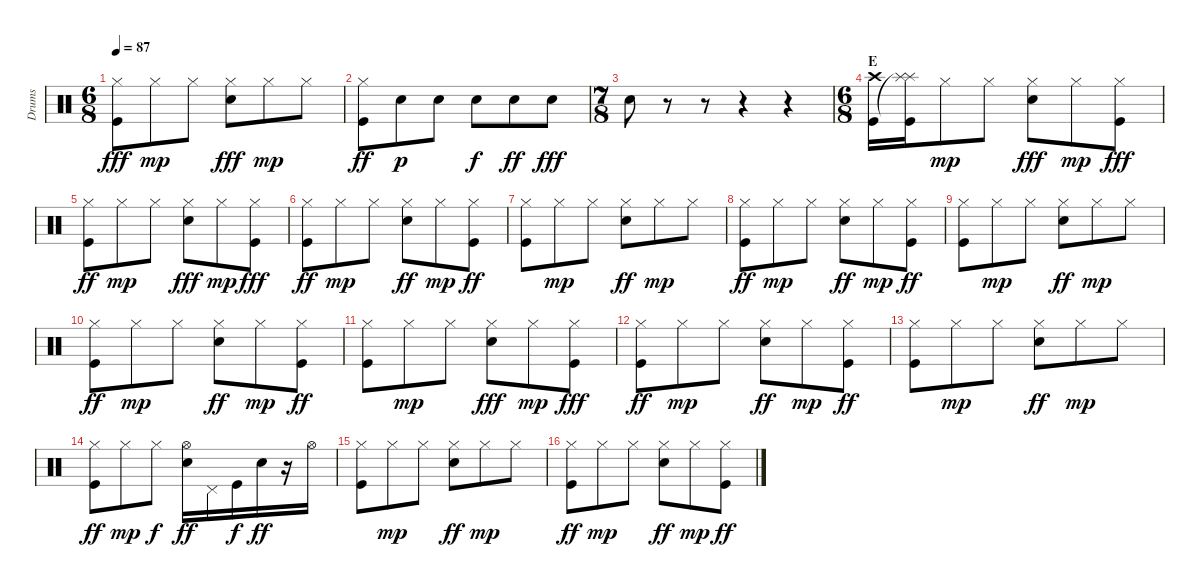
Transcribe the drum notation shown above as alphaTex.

\track ("Drums" "Drums") {instrument percussion}
\staff {score}
\articulation defaults
\ts (6 8)
\tempo 87
\clef neutral
\ks c
("Hi-Hat (closed)" "Kick (hit)").8{dy fff} "Hi-Hat (closed)".8{dy mp} "Hi-Hat (closed)".8 ("Hi-Hat (closed)" "Snare (hit) 2").8{dy fff} "Hi-Hat (closed)".8{dy mp} "Hi-Hat (closed)".8 |
("Hi-Hat (closed)" "Kick (hit)").8{dy ff} "Snare (hit) 2".8{dy p} "Snare (hit) 2".8 "Snare (hit) 2".8{dy f} "Snare (hit) 2".8{dy ff} "Snare (hit) 2".8{dy fff} |
\ts (7 8)
"Snare (hit) 2".8 r.8 r.8 r.4 r.4 |
\ts (6 8)
\section ("" "E")
("Crash high (hit)" "Kick (hit)").16 ("Splash (hit)" "Splash (hit)"{t} "Kick (hit)").16 "Hi-Hat (closed)".8{dy mp} "Hi-Hat (closed)".8 ("Hi-Hat (closed)" "Snare (hit) 2").8{dy fff} "Hi-Hat (closed)".8{dy mp} ("Hi-Hat (closed)" "Kick (hit)").8{dy fff} |
("Hi-Hat (closed)" "Kick (hit)").8{dy ff} "Hi-Hat (closed)".8{dy mp} "Hi-Hat (closed)".8 ("Hi-Hat (closed)" "Snare (hit) 2").8{dy fff} "Hi-Hat (closed)".8{dy mp} ("Hi-Hat (closed)" "Kick (hit)").8{dy fff} |
("Hi-Hat (closed)" "Kick (hit)").8{dy ff} "Hi-Hat (closed)".8{dy mp} "Hi-Hat (closed)".8 ("Hi-Hat (closed)" "Snare (hit) 2").8{dy ff} "Hi-Hat (closed)".8{dy mp} ("Hi-Hat (closed)" "Kick (hit)").8{dy ff} |
("Hi-Hat (closed)" "Kick (hit)").8 "Hi-Hat (closed)".8{dy mp} "Hi-Hat (closed)".8 ("Hi-Hat (closed)" "Snare (hit) 2").8{dy ff} "Hi-Hat (closed)".8{dy mp} "Hi-Hat (closed)".8 |
("Hi-Hat (closed)" "Kick (hit)").8{dy ff} "Hi-Hat (closed)".8{dy mp} "Hi-Hat (closed)".8 ("Hi-Hat (closed)" "Snare (hit) 2").8{dy ff} "Hi-Hat (closed)".8{dy mp} ("Hi-Hat (closed)" "Kick (hit)").8{dy ff} |
("Hi-Hat (closed)" "Kick (hit)").8 "Hi-Hat (closed)".8{dy mp} "Hi-Hat (closed)".8 ("Hi-Hat (closed)" "Snare (hit) 2").8{dy ff} "Hi-Hat (closed)".8{dy mp} "Hi-Hat (closed)".8 |
("Hi-Hat (closed)" "Kick (hit)").8{dy ff} "Hi-Hat (closed)".8{dy mp} "Hi-Hat (closed)".8 ("Hi-Hat (closed)" "Snare (hit) 2").8{dy ff} "Hi-Hat (closed)".8{dy mp} ("Hi-Hat (closed)" "Kick (hit)").8{dy ff} |
("Hi-Hat (closed)" "Kick (hit)").8 "Hi-Hat (closed)".8{dy mp} "Hi-Hat (closed)".8 ("Hi-Hat (closed)" "Snare (hit) 2").8{dy fff} "Hi-Hat (closed)".8{dy mp} ("Hi-Hat (closed)" "Kick (hit)").8{dy fff} |
("Hi-Hat (closed)" "Kick (hit)").8{dy ff} "Hi-Hat (closed)".8{dy mp} "Hi-Hat (closed)".8 ("Hi-Hat (closed)" "Snare (hit) 2").8{dy ff} "Hi-Hat (closed)".8{dy mp} ("Hi-Hat (closed)" "Kick (hit)").8{dy ff} |
("Hi-Hat (closed)" "Kick (hit)").8 "Hi-Hat (closed)".8{dy mp} "Hi-Hat (closed)".8 ("Hi-Hat (closed)" "Snare (hit) 2").8{dy ff} "Hi-Hat (closed)".8{dy mp} "Hi-Hat (closed)".8 |
("Hi-Hat (closed)" "Kick (hit)").8{dy ff} "Hi-Hat (closed)".8{dy mp} "Hi-Hat (closed)".8{dy f} ("Hi-Hat (open)" "Snare (hit) 2").16{dy ff} "Pedal Hi-Hat (hit)".16 "Kick (hit)".16{dy f} "Snare (hit) 2".16{dy ff} r.16 "Hi-Hat (open)".16 |
("Hi-Hat (closed)" "Kick (hit)").8 "Hi-Hat (closed)".8{dy mp} "Hi-Hat (closed)".8 ("Hi-Hat (closed)" "Snare (hit) 2").8{dy ff} "Hi-Hat (closed)".8{dy mp} "Hi-Hat (closed)".8 |
("Hi-Hat (closed)" "Kick (hit)").8{dy ff} "Hi-Hat (closed)".8{dy mp} "Hi-Hat (closed)".8 ("Hi-Hat (closed)" "Snare (hit) 2").8{dy ff} "Hi-Hat (closed)".8{dy mp} ("Hi-Hat (closed)" "Kick (hit)").8{dy ff}
